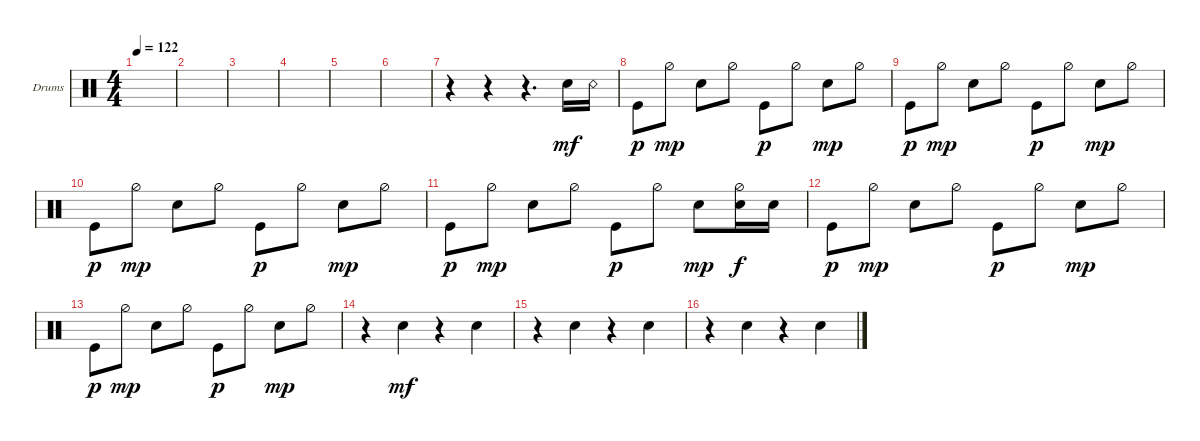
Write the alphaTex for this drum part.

\defaultSystemsLayout 4
\bracketExtendMode groupsimilarinstruments
\firstSystemTrackNameOrientation horizontal
\otherSystemsTrackNameOrientation horizontal
\track ("Drumkit" "Drums") {instrument percussion}
\staff {score}
\articulation defaults
\ts (4 4)
\tempo 122
\clef neutral
\ks c
|
|
|
|
|
|
\scale
0.531977 r.4 r.4 r.4{d} "Snare (hit) 2".16{dy mf} "Snare (rim shot)".16 |
\scale
0.468023 "Kick (hit)".8{dy p} "Hi-Hat (half)".8{dy mp} "Snare (hit) 2".8 "Hi-Hat (half)".8 "Kick (hit)".8{dy p} "Hi-Hat (half)".8 "Snare (hit) 2".8{dy mp} "Hi-Hat (half)".8 |
"Kick (hit)".8{dy p} "Hi-Hat (half)".8{dy mp} "Snare (hit) 2".8 "Hi-Hat (half)".8 "Kick (hit)".8{dy p} "Hi-Hat (half)".8 "Snare (hit) 2".8{dy mp} "Hi-Hat (half)".8 |
"Kick (hit)".8{dy p} "Hi-Hat (half)".8{dy mp} "Snare (hit) 2".8 "Hi-Hat (half)".8 "Kick (hit)".8{dy p} "Hi-Hat (half)".8 "Snare (hit) 2".8{dy mp} "Hi-Hat (half)".8 |
"Kick (hit)".8{dy p} "Hi-Hat (half)".8{dy mp} "Snare (hit) 2".8 "Hi-Hat (half)".8 "Kick (hit)".8{dy p} "Hi-Hat (half)".8 "Snare (hit) 2".8{dy mp} ("Hi-Hat (half)" "Snare (hit) 2").16{dy f} "Snare (hit) 2".16 |
"Kick (hit)".8{dy p} "Hi-Hat (half)".8{dy mp} "Snare (hit) 2".8 "Hi-Hat (half)".8 "Kick (hit)".8{dy p} "Hi-Hat (half)".8 "Snare (hit) 2".8{dy mp} "Hi-Hat (half)".8 |
\scale
0.268041 "Kick (hit)".8{dy p} "Hi-Hat (half)".8{dy mp} "Snare (hit) 2".8 "Hi-Hat (half)".8 "Kick (hit)".8{dy p} "Hi-Hat (half)".8 "Snare (hit) 2".8{dy mp} "Hi-Hat (half)".8 |
r.4 "Snare (hit) 2".4{dy mf} r.4 "Snare (hit) 2".4 |
r.4 "Snare (hit) 2".4 r.4 "Snare (hit) 2".4 |
r.4 "Snare (hit) 2".4 r.4 "Snare (hit) 2".4
